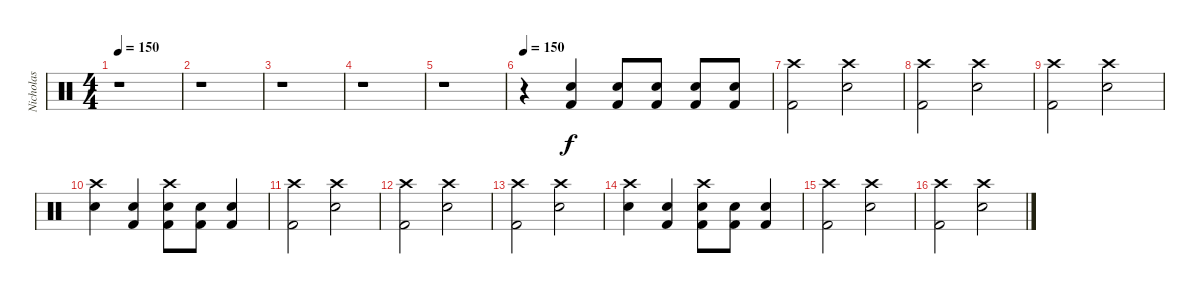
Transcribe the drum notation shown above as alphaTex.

\track ("Nicholas" "Nicholas") {instrument percussion}
\staff {score}
\articulation defaults
\ts (4 4)
\tempo 150
\clef neutral
\ks c
r.1{dy f} |
r.1 |
r.1 |
r.1 |
r.1 |
\tempo 150
r.4 ("Electric Snare (hit)" "Kick (hit) 2").4 ("Electric Snare (hit)" "Kick (hit) 2").8 ("Electric Snare (hit)" "Kick (hit) 2").8 ("Electric Snare (hit)" "Kick (hit) 2").8 ("Electric Snare (hit)" "Kick (hit) 2").8 |
("Crash high (hit)" "Kick (hit) 2").2 ("Crash high (hit)" "Electric Snare (hit)").2 |
("Crash high (hit)" "Kick (hit) 2").2 ("Crash high (hit)" "Electric Snare (hit)").2 |
("Crash high (hit)" "Kick (hit) 2").2 ("Crash high (hit)" "Electric Snare (hit)").2 |
("Crash high (hit)" "Electric Snare (hit)").4 ("Electric Snare (hit)" "Kick (hit) 2").4 ("Crash high (hit)" "Electric Snare (hit)" "Kick (hit) 2").8 ("Electric Snare (hit)" "Kick (hit) 2").8 ("Electric Snare (hit)" "Kick (hit) 2").4 |
("Crash high (hit)" "Kick (hit) 2").2 ("Crash high (hit)" "Electric Snare (hit)").2 |
("Crash high (hit)" "Kick (hit) 2").2 ("Crash high (hit)" "Electric Snare (hit)").2 |
("Crash high (hit)" "Kick (hit) 2").2 ("Crash high (hit)" "Electric Snare (hit)").2 |
("Crash high (hit)" "Electric Snare (hit)").4 ("Electric Snare (hit)" "Kick (hit) 2").4 ("Crash high (hit)" "Electric Snare (hit)" "Kick (hit) 2").8 ("Electric Snare (hit)" "Kick (hit) 2").8 ("Electric Snare (hit)" "Kick (hit) 2").4 |
("Crash high (hit)" "Kick (hit) 2").2 ("Crash high (hit)" "Electric Snare (hit)").2 |
("Crash high (hit)" "Kick (hit) 2").2 ("Crash high (hit)" "Electric Snare (hit)").2
